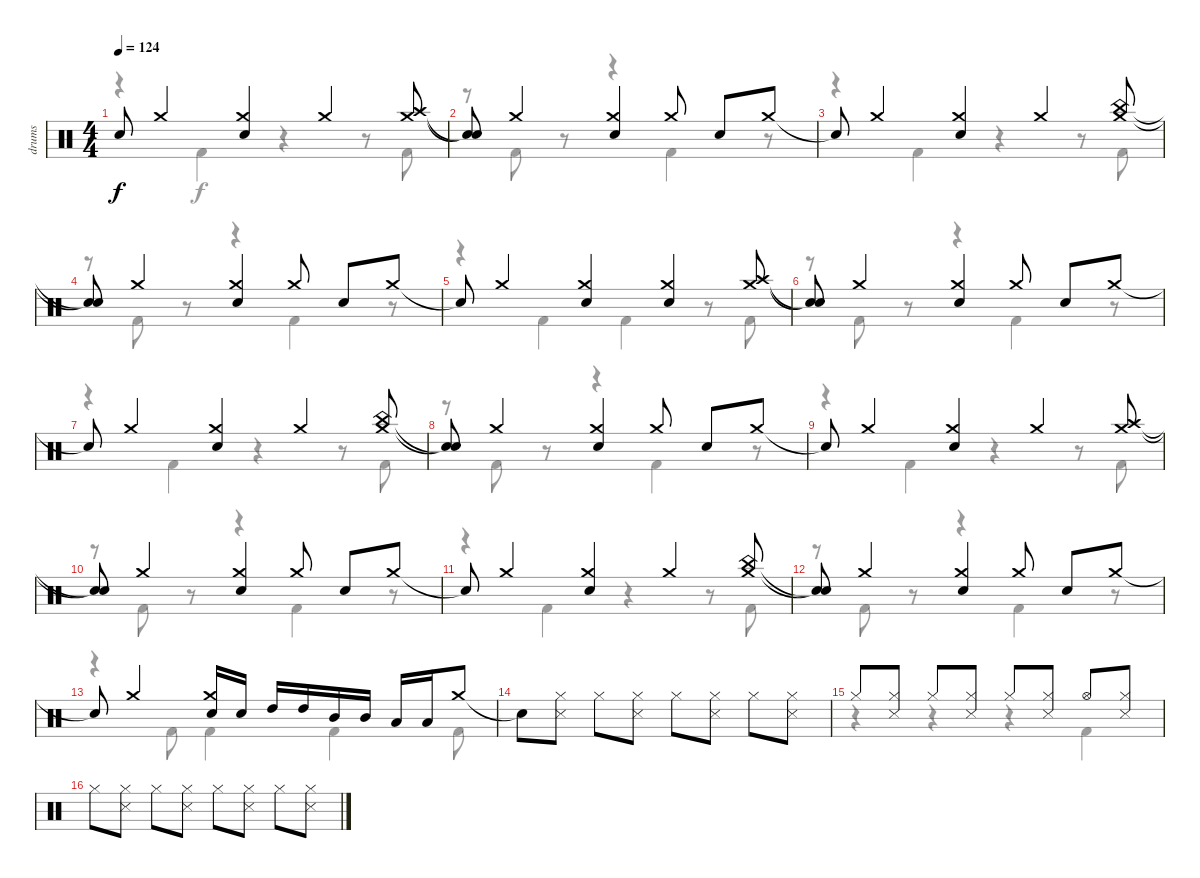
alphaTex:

\track ("drums" "drums") {instrument percussion}
\staff {score}
\articulation defaults
\voice
\ts (4 4)
\tempo 124
\clef neutral
\ks c "Snare (hit)"{t}.8{dy f} "Crash medium (hit)".4
("Crash medium (hit)" "Snare (hit) 2").4 "Crash medium (hit)".4 ("Crash medium (hit)" "Crash high (hit)").8 |
("Snare (hit)"{t} "Snare (hit)"{t}).8 "Crash medium (hit)".4 ("Crash medium (hit)" "Snare (hit) 2").4 "Crash medium (hit)".8 "Snare (hit) 2".8 "Crash medium (hit)".8 |
"Snare (hit)"{t}.8 "Crash medium (hit)".4 ("Crash medium (hit)" "Snare (hit) 2").4 "Crash medium (hit)".4 ("Crash medium (hit)" "China (hit)").8 |
("Snare (hit)"{t} "Snare (hit)"{t}).8 "Crash medium (hit)".4 ("Crash medium (hit)" "Snare (hit) 2").4 "Crash medium (hit)".8 "Snare (hit) 2".8 "Crash medium (hit)".8 |
"Snare (hit)"{t}.8 "Crash medium (hit)".4 ("Crash medium (hit)" "Snare (hit) 2").4 ("Crash medium (hit)" "Snare (hit) 2").4 ("Crash medium (hit)" "Crash high (hit)").8 |
("Snare (hit)"{t} "Snare (hit)"{t}).8 "Crash medium (hit)".4 ("Crash medium (hit)" "Snare (hit) 2").4 "Crash medium (hit)".8 "Snare (hit) 2".8 "Crash medium (hit)".8 |
"Snare (hit)"{t}.8 "Crash medium (hit)".4 ("Crash medium (hit)" "Snare (hit) 2").4 "Crash medium (hit)".4 ("Crash medium (hit)" "China (hit)").8 |
("Snare (hit)"{t} "Snare (hit)"{t}).8 "Crash medium (hit)".4 ("Crash medium (hit)" "Snare (hit) 2").4 "Crash medium (hit)".8 "Snare (hit) 2".8 "Crash medium (hit)".8 |
"Snare (hit)"{t}.8 "Crash medium (hit)".4 ("Crash medium (hit)" "Snare (hit) 2").4 "Crash medium (hit)".4 ("Crash medium (hit)" "Crash high (hit)").8 |
("Snare (hit)"{t} "Snare (hit)"{t}).8 "Crash medium (hit)".4 ("Crash medium (hit)" "Snare (hit) 2").4 "Crash medium (hit)".8 "Snare (hit) 2".8 "Crash medium (hit)".8 |
"Snare (hit)"{t}.8 "Crash medium (hit)".4 ("Crash medium (hit)" "Snare (hit) 2").4 "Crash medium (hit)".4 ("Crash medium (hit)" "China (hit)").8 |
("Snare (hit)"{t} "Snare (hit)"{t}).8 "Crash medium (hit)".4 ("Crash medium (hit)" "Snare (hit) 2").4 "Crash medium (hit)".8 "Snare (hit) 2".8 "Crash medium (hit)".8 |
"Snare (hit)"{t}.8 "Crash medium (hit)".4 ("Crash medium (hit)" "Snare (hit) 2").16 "Snare (hit) 2".16 "High Tom (hit)".16 "High Tom (hit)".16 "Mid Tom (hit)".16 "Mid Tom (hit)".16 "Low Tom (hit)".16 "Low Tom (hit)".16 "Crash medium (hit)".8 |
"Snare (hit)"{t}.8 ("Hi-Hat (closed)" "Snare (side stick) 3").8 "Hi-Hat (closed)".8 ("Hi-Hat (closed)" "Snare (side stick) 3").8 "Hi-Hat (closed)".8 ("Hi-Hat (closed)" "Snare (side stick) 3").8 "Hi-Hat (closed)".8 ("Hi-Hat (closed)" "Snare (side stick) 3").8 |
"Hi-Hat (closed)".8 ("Hi-Hat (closed)" "Snare (side stick) 3").8 "Hi-Hat (closed)".8 ("Hi-Hat (closed)" "Snare (side stick) 3").8 "Hi-Hat (closed)".8 ("Hi-Hat (closed)" "Snare (side stick) 3").8 "Hi-Hat (open)".8 ("Hi-Hat (closed)" "Snare (side stick) 3").8 |
"Hi-Hat (closed)".8 ("Hi-Hat (closed)" "Snare (side stick) 3").8 "Hi-Hat (closed)".8 ("Hi-Hat (closed)" "Snare (side stick) 3").8 "Hi-Hat (closed)".8 ("Hi-Hat (closed)" "Snare (side stick) 3").8 "Hi-Hat (closed)".8 ("Hi-Hat (closed)" "Snare (side stick) 3").8
\voice
\clef neutral
\ottava regular
\simile none
\ks c
r.4{dy f} "Kick (hit) 2".4 r.4 r.8 "Kick (hit) 2".8 |
r.8 "Kick (hit) 2".8 r.8 r.4 "Kick (hit) 2".4 r.8 |
r.4 "Kick (hit) 2".4 r.4 r.8 "Kick (hit) 2".8 |
r.8 "Kick (hit) 2".8 r.8 r.4 "Kick (hit) 2".4 r.8 |
r.4 "Kick (hit) 2".4 "Kick (hit) 2".4 r.8 "Kick (hit) 2".8 |
r.8 "Kick (hit) 2".8 r.8 r.4 "Kick (hit) 2".4 r.8 |
r.4 "Kick (hit) 2".4 r.4 r.8 "Kick (hit) 2".8 |
r.8 "Kick (hit) 2".8 r.8 r.4 "Kick (hit) 2".4 r.8 |
r.4 "Kick (hit) 2".4 r.4 r.8 "Kick (hit) 2".8 |
r.8 "Kick (hit) 2".8 r.8 r.4 "Kick (hit) 2".4 r.8 |
r.4 "Kick (hit) 2".4 r.4 r.8 "Kick (hit) 2".8 |
r.8 "Kick (hit) 2".8 r.8 r.4 "Kick (hit) 2".4 r.8 |
r.4 "Kick (hit) 2".8 "Kick (hit) 2".4 "Kick (hit) 2".4 "Kick (hit) 2".8 |
|
r.4 r.4 r.4 "Kick (hit) 2".4 |
